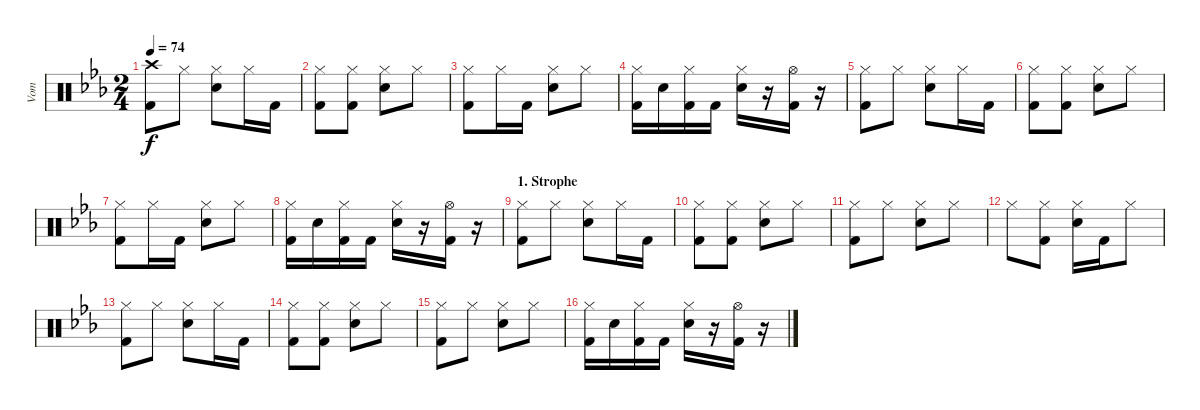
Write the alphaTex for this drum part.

\track ("Vom" "Vom") {instrument percussion}
\staff {score}
\articulation defaults
\ts (2 4)
\tempo 74
\clef neutral
\ks eb
("Crash high (hit)" "Kick (hit) 2").8{dy f} "Hi-Hat (closed)".8 ("Hi-Hat (closed)" "Snare (hit) 2").8 "Hi-Hat (closed)".16 "Kick (hit) 2".16 |
("Hi-Hat (closed)" "Kick (hit) 2").8 ("Hi-Hat (closed)" "Kick (hit) 2").8 ("Hi-Hat (closed)" "Snare (hit) 2").8 "Hi-Hat (closed)".8 |
("Hi-Hat (closed)" "Kick (hit) 2").8 "Hi-Hat (closed)".16 "Kick (hit) 2".16 ("Hi-Hat (closed)" "Snare (hit) 2").8 "Hi-Hat (closed)".8 |
("Hi-Hat (closed)" "Kick (hit) 2").16 "Snare (hit) 2".16 ("Hi-Hat (closed)" "Kick (hit) 2").16 "Kick (hit) 2".16 ("Hi-Hat (closed)" "Snare (hit) 2").16 r.16 ("Hi-Hat (open)" "Kick (hit) 2").16 r.16 |
("Hi-Hat (closed)" "Kick (hit) 2").8 "Hi-Hat (closed)".8 ("Hi-Hat (closed)" "Snare (hit) 2").8 "Hi-Hat (closed)".16 "Kick (hit) 2".16 |
("Hi-Hat (closed)" "Kick (hit) 2").8 ("Hi-Hat (closed)" "Kick (hit) 2").8 ("Hi-Hat (closed)" "Snare (hit) 2").8 "Hi-Hat (closed)".8 |
("Hi-Hat (closed)" "Kick (hit) 2").8 "Hi-Hat (closed)".16 "Kick (hit) 2".16 ("Hi-Hat (closed)" "Snare (hit) 2").8 "Hi-Hat (closed)".8 |
("Hi-Hat (closed)" "Kick (hit) 2").16 "Snare (hit) 2".16 ("Hi-Hat (closed)" "Kick (hit) 2").16 "Kick (hit) 2".16 ("Hi-Hat (closed)" "Snare (hit) 2").16 r.16 ("Hi-Hat (open)" "Kick (hit) 2").16 r.16 |
\section ("" "1. Strophe")
("Hi-Hat (closed)" "Kick (hit) 2").8 "Hi-Hat (closed)".8 ("Hi-Hat (closed)" "Snare (hit) 2").8 "Hi-Hat (closed)".16 "Kick (hit) 2".16 |
("Hi-Hat (closed)" "Kick (hit) 2").8 ("Hi-Hat (closed)" "Kick (hit) 2").8 ("Hi-Hat (closed)" "Snare (hit) 2").8 "Hi-Hat (closed)".8 |
("Hi-Hat (closed)" "Kick (hit) 2").8 "Hi-Hat (closed)".8 ("Hi-Hat (closed)" "Snare (hit) 2").8 "Hi-Hat (closed)".8 |
"Hi-Hat (closed)".8 ("Hi-Hat (closed)" "Kick (hit) 2").8 ("Hi-Hat (closed)" "Snare (hit) 2").16 "Kick (hit) 2".16 "Hi-Hat (closed)".8 |
("Hi-Hat (closed)" "Kick (hit) 2").8 "Hi-Hat (closed)".8 ("Hi-Hat (closed)" "Snare (hit) 2").8 "Hi-Hat (closed)".16 "Kick (hit) 2".16 |
("Hi-Hat (closed)" "Kick (hit) 2").8 ("Hi-Hat (closed)" "Kick (hit) 2").8 ("Hi-Hat (closed)" "Snare (hit) 2").8 "Hi-Hat (closed)".8 |
("Hi-Hat (closed)" "Kick (hit) 2").8 "Hi-Hat (closed)".8 ("Hi-Hat (closed)" "Snare (hit) 2").8 "Hi-Hat (closed)".8 |
("Hi-Hat (closed)" "Kick (hit) 2").16 "Snare (hit) 2".16 ("Hi-Hat (closed)" "Kick (hit) 2").16 "Kick (hit) 2".16 ("Hi-Hat (closed)" "Snare (hit) 2").16 r.16 ("Hi-Hat (open)" "Kick (hit) 2").16 r.16
